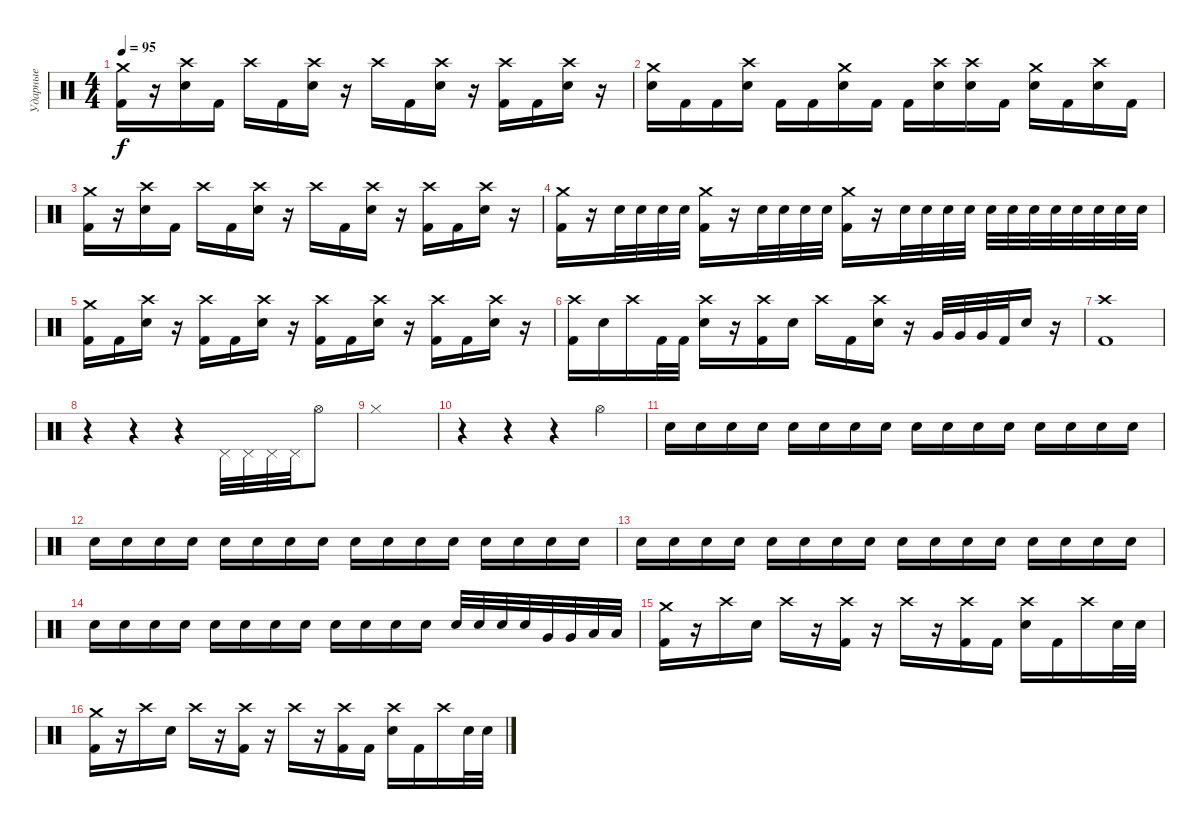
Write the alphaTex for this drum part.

\track ("Ударные" "Ударные") {instrument percussion}
\staff {score}
\articulation defaults
\ts (4 4)
\tempo 95
\clef neutral
\ks c
("Crash medium (hit)" "Kick (hit) 2").16{dy f} r.16 ("Crash high (hit)" "Electric Snare (hit)").16 "Kick (hit) 2".16 "Crash high (hit)".16 "Kick (hit) 2".16 ("Crash high (hit)" "Electric Snare (hit)").16 r.16 "Crash high (hit)".16 "Kick (hit) 2".16 ("Crash high (hit)" "Electric Snare (hit)").16 r.16 ("Crash high (hit)" "Kick (hit) 2").16 "Kick (hit) 2".16 ("Crash high (hit)" "Electric Snare (hit)").16 r.16 |
("Crash medium (hit)" "Electric Snare (hit)").16 "Kick (hit) 2".16 "Kick (hit) 2".16 ("Crash high (hit)" "Electric Snare (hit)").16 "Kick (hit) 2".16 "Kick (hit) 2".16 ("Crash medium (hit)" "Electric Snare (hit)").16 "Kick (hit) 2".16 "Kick (hit) 2".16 ("Crash high (hit)" "Electric Snare (hit)").16 ("Crash high (hit)" "Electric Snare (hit)").16 "Kick (hit) 2".16 ("Crash medium (hit)" "Electric Snare (hit)").16 "Kick (hit) 2".16 ("Crash high (hit)" "Electric Snare (hit)").16 "Kick (hit) 2".16 |
("Crash medium (hit)" "Kick (hit) 2").16 r.16 ("Crash high (hit)" "Electric Snare (hit)").16 "Kick (hit) 2".16 "Crash high (hit)".16 "Kick (hit) 2".16 ("Crash high (hit)" "Electric Snare (hit)").16 r.16 "Crash high (hit)".16 "Kick (hit) 2".16 ("Crash high (hit)" "Electric Snare (hit)").16 r.16 ("Crash high (hit)" "Kick (hit) 2").16 "Kick (hit) 2".16 ("Crash high (hit)" "Electric Snare (hit)").16 r.16 |
("Crash medium (hit)" "Kick (hit) 2").16 r.16 "Electric Snare (hit)".32 "Electric Snare (hit)".32 "Electric Snare (hit)".32 "Electric Snare (hit)".32 ("Crash medium (hit)" "Kick (hit) 2").16 r.16 "Electric Snare (hit)".32 "Electric Snare (hit)".32 "Electric Snare (hit)".32 "Electric Snare (hit)".32 ("Crash medium (hit)" "Kick (hit) 2").16 r.16 "Electric Snare (hit)".32 "Electric Snare (hit)".32 "Electric Snare (hit)".32 "Electric Snare (hit)".32 "Electric Snare (hit)".32 "Electric Snare (hit)".32 "Electric Snare (hit)".32 "Electric Snare (hit)".32 "Electric Snare (hit)".32 "Electric Snare (hit)".32 "Electric Snare (hit)".32 "Electric Snare (hit)".32 |
("Crash medium (hit)" "Kick (hit) 2").16 "Kick (hit) 2".16 ("Crash high (hit)" "Electric Snare (hit)").16 r.16 ("Crash high (hit)" "Kick (hit) 2").16 "Kick (hit) 2".16 ("Crash high (hit)" "Electric Snare (hit)").16 r.16 ("Crash high (hit)" "Kick (hit) 2").16 "Kick (hit) 2".16 ("Crash high (hit)" "Electric Snare (hit)").16 r.16 ("Crash high (hit)" "Kick (hit) 2").16 "Kick (hit) 2".16 ("Crash high (hit)" "Electric Snare (hit)").16 r.16 |
("Crash high (hit)" "Kick (hit) 2").16 "Electric Snare (hit)".16 "Crash high (hit)".16 "Kick (hit) 2".32 "Kick (hit) 2".32 ("Crash high (hit)" "Electric Snare (hit)").16 r.16 ("Crash high (hit)" "Kick (hit) 2").16 "Electric Snare (hit)".16 "Crash high (hit)".16 "Kick (hit) 2".16 ("Crash high (hit)" "Electric Snare (hit)").16 r.16 "Very Low Tom (hit)".32 "Very Low Tom (hit)".32 "Very Low Tom (hit)".32 "Kick (hit) 2".32 "Electric Snare (hit)".16 r.16 |
("Crash high (hit)" "Kick (hit) 2").1 |
r.4 r.4 r.4 "Pedal Hi-Hat (hit)".32 "Pedal Hi-Hat (hit)".32 "Pedal Hi-Hat (hit)".32 "Pedal Hi-Hat (hit)".32 "Hi-Hat (open)".8 |
"Hi-Hat (closed)".1 |
r.4 r.4 r.4 "Hi-Hat (open)".4 |
"Electric Snare (hit)".16 "Electric Snare (hit)".16 "Electric Snare (hit)".16 "Electric Snare (hit)".16 "Electric Snare (hit)".16 "Electric Snare (hit)".16 "Electric Snare (hit)".16 "Electric Snare (hit)".16 "Electric Snare (hit)".16 "Electric Snare (hit)".16 "Electric Snare (hit)".16 "Electric Snare (hit)".16 "Electric Snare (hit)".16 "Electric Snare (hit)".16 "Electric Snare (hit)".16 "Electric Snare (hit)".16 |
"Electric Snare (hit)".16 "Electric Snare (hit)".16 "Electric Snare (hit)".16 "Electric Snare (hit)".16 "Electric Snare (hit)".16 "Electric Snare (hit)".16 "Electric Snare (hit)".16 "Electric Snare (hit)".16 "Electric Snare (hit)".16 "Electric Snare (hit)".16 "Electric Snare (hit)".16 "Electric Snare (hit)".16 "Electric Snare (hit)".16 "Electric Snare (hit)".16 "Electric Snare (hit)".16 "Electric Snare (hit)".16 |
"Electric Snare (hit)".16 "Electric Snare (hit)".16 "Electric Snare (hit)".16 "Electric Snare (hit)".16 "Electric Snare (hit)".16 "Electric Snare (hit)".16 "Electric Snare (hit)".16 "Electric Snare (hit)".16 "Electric Snare (hit)".16 "Electric Snare (hit)".16 "Electric Snare (hit)".16 "Electric Snare (hit)".16 "Electric Snare (hit)".16 "Electric Snare (hit)".16 "Electric Snare (hit)".16 "Electric Snare (hit)".16 |
"Electric Snare (hit)".16 "Electric Snare (hit)".16 "Electric Snare (hit)".16 "Electric Snare (hit)".16 "Electric Snare (hit)".16 "Electric Snare (hit)".16 "Electric Snare (hit)".16 "Electric Snare (hit)".16 "Electric Snare (hit)".16 "Electric Snare (hit)".16 "Electric Snare (hit)".16 "Electric Snare (hit)".16 "Electric Snare (hit)".32 "Electric Snare (hit)".32 "Electric Snare (hit)".32 "Electric Snare (hit)".32 "Very Low Tom (hit)".32 "Very Low Tom (hit)".32 "Low Floor Tom (hit)".32 "Low Floor Tom (hit)".32 |
("Crash medium (hit)" "Kick (hit) 2").16 r.16 "Crash high (hit)".16 "Electric Snare (hit)".16 "Crash high (hit)".16 r.16 ("Crash high (hit)" "Kick (hit) 2").16 r.16 "Crash high (hit)".16 r.16 ("Crash high (hit)" "Kick (hit) 2").16 "Kick (hit) 2".16 ("Crash high (hit)" "Electric Snare (hit)").16 "Kick (hit) 2".16 "Crash high (hit)".16 "Electric Snare (hit)".32 "Electric Snare (hit)".32 |
("Crash medium (hit)" "Kick (hit) 2").16 r.16 "Crash high (hit)".16 "Electric Snare (hit)".16 "Crash high (hit)".16 r.16 ("Crash high (hit)" "Kick (hit) 2").16 r.16 "Crash high (hit)".16 r.16 ("Crash high (hit)" "Kick (hit) 2").16 "Kick (hit) 2".16 ("Crash high (hit)" "Electric Snare (hit)").16 "Kick (hit) 2".16 "Crash high (hit)".16 "Electric Snare (hit)".32 "Electric Snare (hit)".32
